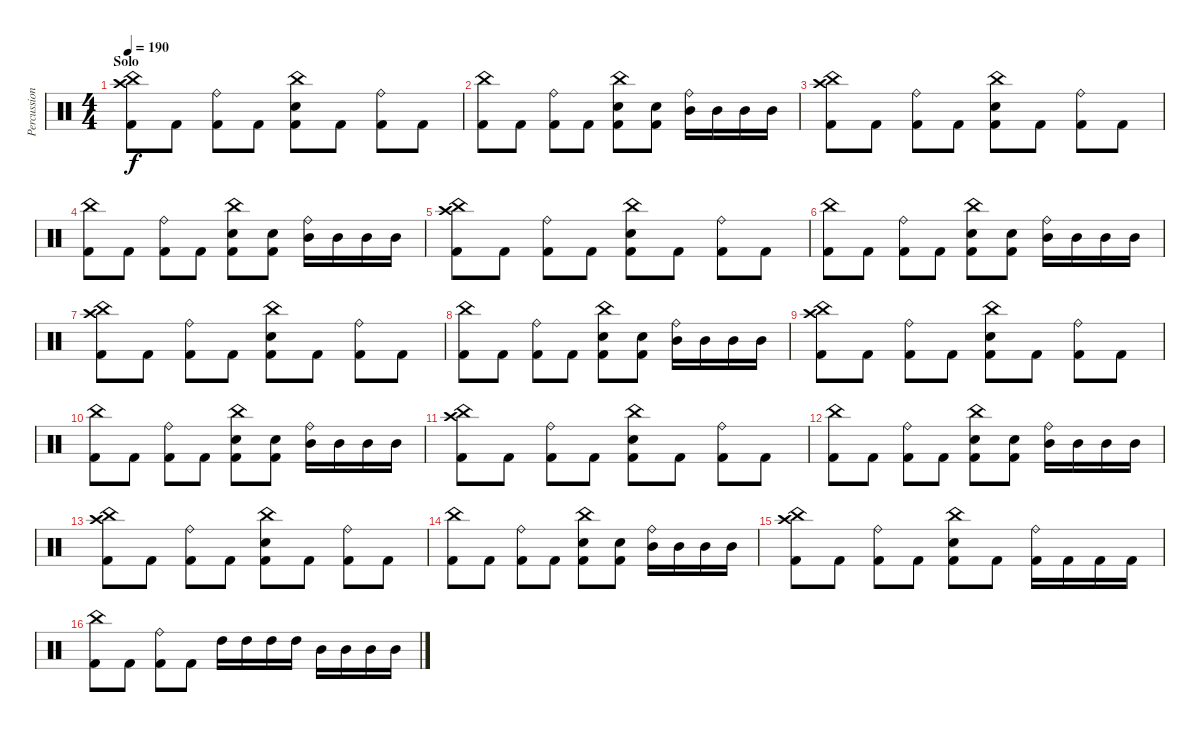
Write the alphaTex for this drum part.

\track ("Percussion" "Percussion") {instrument percussion}
\staff {score}
\articulation defaults
\ts (4 4)
\section ("" "Solo")
\tempo 190
\clef neutral
\ks c
("China (hit)" "Crash high (hit)" "Kick (hit) 2").8{dy f} "Kick (hit) 2".8 ("Ride (bell)" "Kick (hit) 2").8 "Kick (hit) 2".8 ("China (hit)" "Snare (hit) 2" "Kick (hit) 2").8 "Kick (hit) 2".8 ("Ride (bell)" "Kick (hit) 2").8 "Kick (hit) 2".8 |
("China (hit)" "Kick (hit) 2").8 "Kick (hit) 2".8 ("Ride (bell)" "Kick (hit) 2").8 "Kick (hit) 2".8 ("China (hit)" "Snare (hit) 2" "Kick (hit) 2").8 ("Snare (hit) 2" "Kick (hit) 2").8 ("Ride (bell)" "Mid Tom (hit)").16 "Mid Tom (hit)".16 "Mid Tom (hit)".16 "Mid Tom (hit)".16 |
("China (hit)" "Crash high (hit)" "Kick (hit) 2").8 "Kick (hit) 2".8 ("Ride (bell)" "Kick (hit) 2").8 "Kick (hit) 2".8 ("China (hit)" "Snare (hit) 2" "Kick (hit) 2").8 "Kick (hit) 2".8 ("Ride (bell)" "Kick (hit) 2").8 "Kick (hit) 2".8 |
("China (hit)" "Kick (hit) 2").8 "Kick (hit) 2".8 ("Ride (bell)" "Kick (hit) 2").8 "Kick (hit) 2".8 ("China (hit)" "Snare (hit) 2" "Kick (hit) 2").8 ("Snare (hit) 2" "Kick (hit) 2").8 ("Ride (bell)" "Mid Tom (hit)").16 "Mid Tom (hit)".16 "Mid Tom (hit)".16 "Mid Tom (hit)".16 |
("China (hit)" "Crash high (hit)" "Kick (hit) 2").8 "Kick (hit) 2".8 ("Ride (bell)" "Kick (hit) 2").8 "Kick (hit) 2".8 ("China (hit)" "Snare (hit) 2" "Kick (hit) 2").8 "Kick (hit) 2".8 ("Ride (bell)" "Kick (hit) 2").8 "Kick (hit) 2".8 |
("China (hit)" "Kick (hit) 2").8 "Kick (hit) 2".8 ("Ride (bell)" "Kick (hit) 2").8 "Kick (hit) 2".8 ("China (hit)" "Snare (hit) 2" "Kick (hit) 2").8 ("Snare (hit) 2" "Kick (hit) 2").8 ("Ride (bell)" "Mid Tom (hit)").16 "Mid Tom (hit)".16 "Mid Tom (hit)".16 "Mid Tom (hit)".16 |
("China (hit)" "Crash high (hit)" "Kick (hit) 2").8 "Kick (hit) 2".8 ("Ride (bell)" "Kick (hit) 2").8 "Kick (hit) 2".8 ("China (hit)" "Snare (hit) 2" "Kick (hit) 2").8 "Kick (hit) 2".8 ("Ride (bell)" "Kick (hit) 2").8 "Kick (hit) 2".8 |
("China (hit)" "Kick (hit) 2").8 "Kick (hit) 2".8 ("Ride (bell)" "Kick (hit) 2").8 "Kick (hit) 2".8 ("China (hit)" "Snare (hit) 2" "Kick (hit) 2").8 ("Snare (hit) 2" "Kick (hit) 2").8 ("Ride (bell)" "Mid Tom (hit)").16 "Mid Tom (hit)".16 "Mid Tom (hit)".16 "Mid Tom (hit)".16 |
("China (hit)" "Crash high (hit)" "Kick (hit) 2").8 "Kick (hit) 2".8 ("Ride (bell)" "Kick (hit) 2").8 "Kick (hit) 2".8 ("China (hit)" "Snare (hit) 2" "Kick (hit) 2").8 "Kick (hit) 2".8 ("Ride (bell)" "Kick (hit) 2").8 "Kick (hit) 2".8 |
("China (hit)" "Kick (hit) 2").8 "Kick (hit) 2".8 ("Ride (bell)" "Kick (hit) 2").8 "Kick (hit) 2".8 ("China (hit)" "Snare (hit) 2" "Kick (hit) 2").8 ("Snare (hit) 2" "Kick (hit) 2").8 ("Ride (bell)" "Mid Tom (hit)").16 "Mid Tom (hit)".16 "Mid Tom (hit)".16 "Mid Tom (hit)".16 |
("China (hit)" "Crash high (hit)" "Kick (hit) 2").8 "Kick (hit) 2".8 ("Ride (bell)" "Kick (hit) 2").8 "Kick (hit) 2".8 ("China (hit)" "Snare (hit) 2" "Kick (hit) 2").8 "Kick (hit) 2".8 ("Ride (bell)" "Kick (hit) 2").8 "Kick (hit) 2".8 |
("China (hit)" "Kick (hit) 2").8 "Kick (hit) 2".8 ("Ride (bell)" "Kick (hit) 2").8 "Kick (hit) 2".8 ("China (hit)" "Snare (hit) 2" "Kick (hit) 2").8 ("Snare (hit) 2" "Kick (hit) 2").8 ("Ride (bell)" "Mid Tom (hit)").16 "Mid Tom (hit)".16 "Mid Tom (hit)".16 "Mid Tom (hit)".16 |
("China (hit)" "Crash high (hit)" "Kick (hit) 2").8 "Kick (hit) 2".8 ("Ride (bell)" "Kick (hit) 2").8 "Kick (hit) 2".8 ("China (hit)" "Snare (hit) 2" "Kick (hit) 2").8 "Kick (hit) 2".8 ("Ride (bell)" "Kick (hit) 2").8 "Kick (hit) 2".8 |
("China (hit)" "Kick (hit) 2").8 "Kick (hit) 2".8 ("Ride (bell)" "Kick (hit) 2").8 "Kick (hit) 2".8 ("China (hit)" "Snare (hit) 2" "Kick (hit) 2").8 ("Snare (hit) 2" "Kick (hit) 2").8 ("Ride (bell)" "Mid Tom (hit)").16 "Mid Tom (hit)".16 "Mid Tom (hit)".16 "Mid Tom (hit)".16 |
("China (hit)" "Crash high (hit)" "Kick (hit) 2").8 "Kick (hit) 2".8 ("Ride (bell)" "Kick (hit) 2").8 "Kick (hit) 2".8 ("China (hit)" "Snare (hit) 2" "Kick (hit) 2").8 "Kick (hit) 2".8 ("Ride (bell)" "Kick (hit) 2").16 "Kick (hit) 2".16 "Kick (hit) 2".16 "Kick (hit) 2".16 |
("China (hit)" "Kick (hit) 2").8 "Kick (hit) 2".8 ("Ride (bell)" "Kick (hit) 2").8 "Kick (hit) 2".8 "High Tom (hit)".16 "High Tom (hit)".16 "High Tom (hit)".16 "High Tom (hit)".16 "Mid Tom (hit)".16 "Mid Tom (hit)".16 "Mid Tom (hit)".16 "Mid Tom (hit)".16
